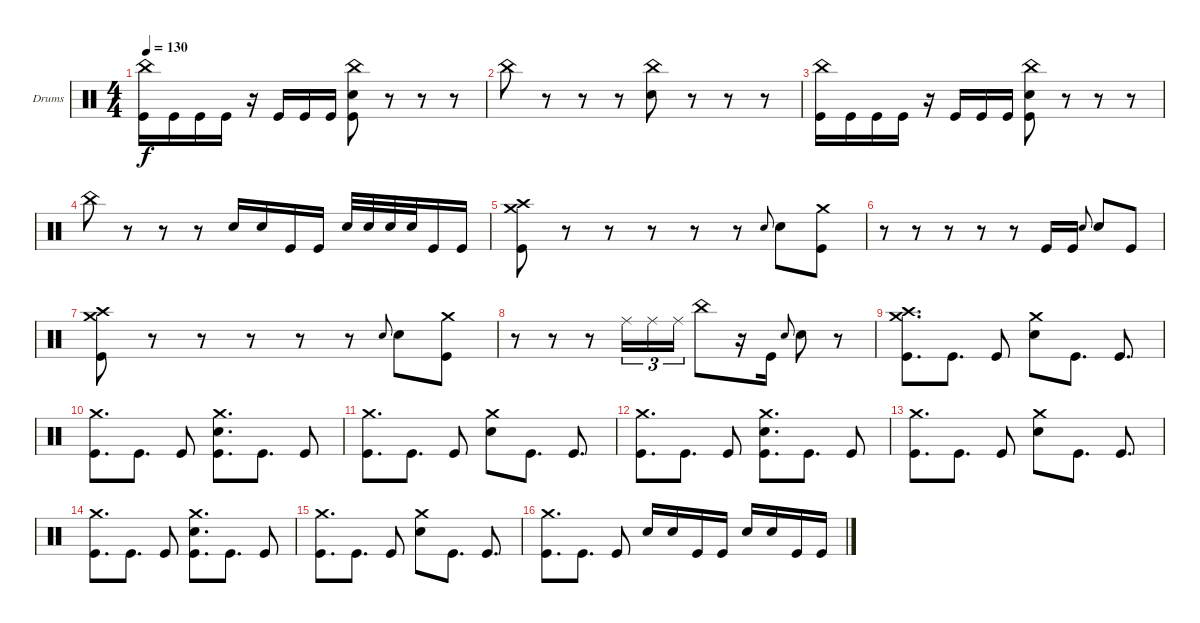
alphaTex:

\bracketExtendMode groupsimilarinstruments
\firstSystemTrackNameOrientation horizontal
\otherSystemsTrackNameOrientation horizontal
\track ("Boum Boum" "Drums") {instrument percussion}
\staff {score}
\articulation defaults
\ts (4 4)
\tempo 130
\clef neutral
\ks c
("China (hit)" "Kick (hit)").16{dy f} "Kick (hit)".16 "Kick (hit)".16 "Kick (hit)".16 r.16 "Kick (hit)".16 "Kick (hit)".16 "Kick (hit)".16 ("Kick (hit)" "Snare (hit) 2" "China (hit)").8 r.8 r.8 r.8 |
"China (hit)".8 r.8 r.8 r.8 ("China (hit)" "Snare (hit) 2").8 r.8 r.8 r.8 |
("Kick (hit)" "China (hit)").16 "Kick (hit)".16 "Kick (hit)".16 "Kick (hit)".16 r.16 "Kick (hit)".16 "Kick (hit)".16 "Kick (hit)".16 ("Kick (hit)" "Snare (hit) 2" "China (hit)").8 r.8 r.8 r.8 |
"China (hit)".8 r.8 r.8 r.8 "Snare (hit) 2".16 "Snare (hit) 2".16 "Kick (hit)".16 "Kick (hit)".16 "Snare (hit) 2".32 "Snare (hit) 2".32 "Snare (hit) 2".32 "Snare (hit) 2".32 "Kick (hit)".16 "Kick (hit)".16 |
("Kick (hit)" "Crash medium (hit)" "Crash high (hit)").8 r.8 r.8 r.8 r.8 r.8 "Snare (hit) 2".8{gr onbeat} "Snare (hit) 2".8 ("Crash medium (hit)" "Kick (hit)").8 |
r.8 r.8 r.8 r.8 r.8 "Kick (hit)".16 "Kick (hit)".16 "Snare (hit) 2".8{gr onbeat} "Snare (hit) 2".8 "Kick (hit)".8 |
("Kick (hit)" "Crash medium (hit)" "Crash high (hit)").8 r.8 r.8 r.8 r.8 r.8 "Snare (hit) 2".8{gr onbeat} "Snare (hit) 2".8 ("Kick (hit)" "Crash medium (hit)").8 |
r.8 r.8 r.8 "Ride (middle)".16{tu (3 2)} "Ride (middle)".16{tu (3 2)} "Ride (middle)".16{tu (3 2)} "China (hit)".8 r.16 "Kick (hit)".16 "Snare (hit) 2".8{gr onbeat} "Snare (hit) 2".8 r.8 |
("Kick (hit)" "Crash medium (hit)" "Crash high (hit)").8{d} "Kick (hit)".8{d} "Kick (hit)".8 ("Crash medium (hit)" "Snare (hit) 2").8 "Kick (hit)".8{d} "Kick (hit)".8{d} |
("Kick (hit)" "Crash medium (hit)").8{d} "Kick (hit)".8{d} "Kick (hit)".8 ("Crash medium (hit)" "Snare (hit) 2" "Kick (hit)").8{d} "Kick (hit)".8{d} "Kick (hit)".8 |
("Kick (hit)" "Crash medium (hit)").8{d} "Kick (hit)".8{d} "Kick (hit)".8 ("Crash medium (hit)" "Snare (hit) 2").8 "Kick (hit)".8{d} "Kick (hit)".8{d} |
("Kick (hit)" "Crash medium (hit)").8{d} "Kick (hit)".8{d} "Kick (hit)".8 ("Crash medium (hit)" "Snare (hit) 2" "Kick (hit)").8{d} "Kick (hit)".8{d} "Kick (hit)".8 |
("Kick (hit)" "Crash medium (hit)").8{d} "Kick (hit)".8{d} "Kick (hit)".8 ("Crash medium (hit)" "Snare (hit) 2").8 "Kick (hit)".8{d} "Kick (hit)".8{d} |
("Kick (hit)" "Crash medium (hit)").8{d} "Kick (hit)".8{d} "Kick (hit)".8 ("Crash medium (hit)" "Snare (hit) 2" "Kick (hit)").8{d} "Kick (hit)".8{d} "Kick (hit)".8 |
("Kick (hit)" "Crash medium (hit)").8{d} "Kick (hit)".8{d} "Kick (hit)".8 ("Crash medium (hit)" "Snare (hit) 2").8 "Kick (hit)".8{d} "Kick (hit)".8{d} |
("Kick (hit)" "Crash medium (hit)").8{d} "Kick (hit)".8{d} "Kick (hit)".8 "Snare (hit) 2".16 "Snare (hit) 2".16 "Kick (hit)".16 "Kick (hit)".16 "Snare (hit) 2".16 "Snare (hit) 2".16 "Kick (hit)".16 "Kick (hit)".16
